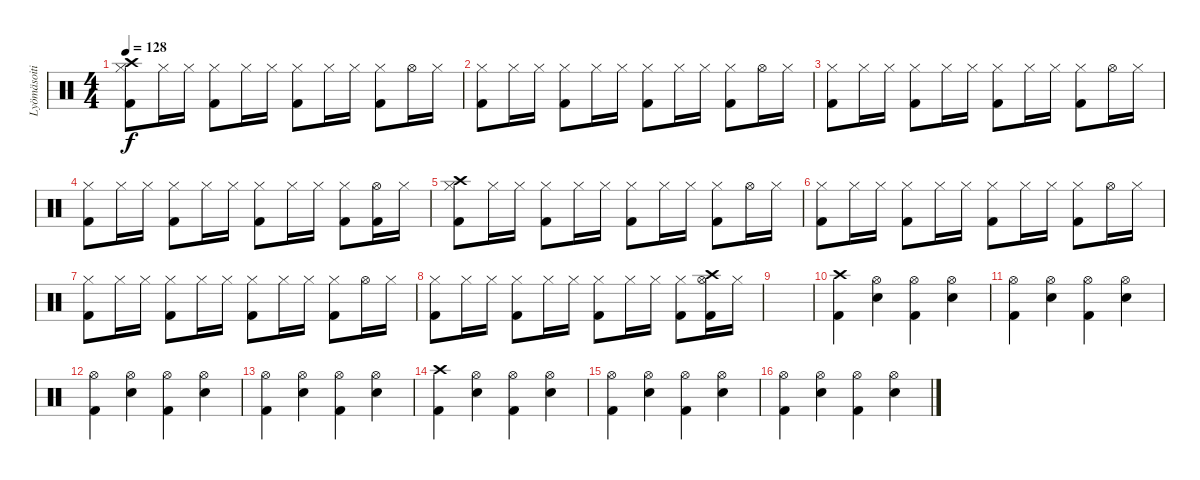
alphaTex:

\track ("Lyömäsoitin" "Lyömäsoiti") {instrument percussion}
\staff {score}
\articulation defaults
\ts (4 4)
\tempo 128
\clef neutral
\ks c
("Crash high (hit)" "Hi-Hat (closed)" "Kick (hit) 2").8{dy f} "Hi-Hat (closed)".16 "Hi-Hat (closed)".16 ("Hi-Hat (closed)" "Kick (hit) 2").8 "Hi-Hat (closed)".16 "Hi-Hat (closed)".16 ("Hi-Hat (closed)" "Kick (hit) 2").8 "Hi-Hat (closed)".16 "Hi-Hat (closed)".16 ("Hi-Hat (closed)" "Kick (hit) 2").8 "Hi-Hat (open)".16 "Hi-Hat (closed)".16 |
("Hi-Hat (closed)" "Kick (hit) 2").8 "Hi-Hat (closed)".16 "Hi-Hat (closed)".16 ("Hi-Hat (closed)" "Kick (hit) 2").8 "Hi-Hat (closed)".16 "Hi-Hat (closed)".16 ("Hi-Hat (closed)" "Kick (hit) 2").8 "Hi-Hat (closed)".16 "Hi-Hat (closed)".16 ("Hi-Hat (closed)" "Kick (hit) 2").8 "Hi-Hat (open)".16 "Hi-Hat (closed)".16 |
("Hi-Hat (closed)" "Kick (hit) 2").8 "Hi-Hat (closed)".16 "Hi-Hat (closed)".16 ("Hi-Hat (closed)" "Kick (hit) 2").8 "Hi-Hat (closed)".16 "Hi-Hat (closed)".16 ("Hi-Hat (closed)" "Kick (hit) 2").8 "Hi-Hat (closed)".16 "Hi-Hat (closed)".16 ("Hi-Hat (closed)" "Kick (hit) 2").8 "Hi-Hat (open)".16 "Hi-Hat (closed)".16 |
("Hi-Hat (closed)" "Kick (hit) 2").8 "Hi-Hat (closed)".16 "Hi-Hat (closed)".16 ("Hi-Hat (closed)" "Kick (hit) 2").8 "Hi-Hat (closed)".16 "Hi-Hat (closed)".16 ("Hi-Hat (closed)" "Kick (hit) 2").8 "Hi-Hat (closed)".16 "Hi-Hat (closed)".16 ("Hi-Hat (closed)" "Kick (hit) 2").8 ("Hi-Hat (open)" "Kick (hit) 2").16 "Hi-Hat (closed)".16 |
("Crash high (hit)" "Hi-Hat (closed)" "Kick (hit) 2").8 "Hi-Hat (closed)".16 "Hi-Hat (closed)".16 ("Hi-Hat (closed)" "Kick (hit) 2").8 "Hi-Hat (closed)".16 "Hi-Hat (closed)".16 ("Hi-Hat (closed)" "Kick (hit) 2").8 "Hi-Hat (closed)".16 "Hi-Hat (closed)".16 ("Hi-Hat (closed)" "Kick (hit) 2").8 "Hi-Hat (open)".16 "Hi-Hat (closed)".16 |
("Hi-Hat (closed)" "Kick (hit) 2").8 "Hi-Hat (closed)".16 "Hi-Hat (closed)".16 ("Hi-Hat (closed)" "Kick (hit) 2").8 "Hi-Hat (closed)".16 "Hi-Hat (closed)".16 ("Hi-Hat (closed)" "Kick (hit) 2").8 "Hi-Hat (closed)".16 "Hi-Hat (closed)".16 ("Hi-Hat (closed)" "Kick (hit) 2").8 "Hi-Hat (open)".16 "Hi-Hat (closed)".16 |
("Hi-Hat (closed)" "Kick (hit) 2").8 "Hi-Hat (closed)".16 "Hi-Hat (closed)".16 ("Hi-Hat (closed)" "Kick (hit) 2").8 "Hi-Hat (closed)".16 "Hi-Hat (closed)".16 ("Hi-Hat (closed)" "Kick (hit) 2").8 "Hi-Hat (closed)".16 "Hi-Hat (closed)".16 ("Hi-Hat (closed)" "Kick (hit) 2").8 "Hi-Hat (open)".16 "Hi-Hat (closed)".16 |
("Hi-Hat (closed)" "Kick (hit) 2").8 "Hi-Hat (closed)".16 "Hi-Hat (closed)".16 ("Hi-Hat (closed)" "Kick (hit) 2").8 "Hi-Hat (closed)".16 "Hi-Hat (closed)".16 ("Hi-Hat (closed)" "Kick (hit) 2").8 "Hi-Hat (closed)".16 "Hi-Hat (closed)".16 ("Hi-Hat (closed)" "Kick (hit) 2").8 ("Crash high (hit)" "Hi-Hat (open)" "Kick (hit) 2").16 "Hi-Hat (closed)".16 |
|
("Crash high (hit)" "Kick (hit) 2").4 ("Hi-Hat (open)" "Electric Snare (hit)").4 ("Hi-Hat (open)" "Kick (hit) 2").4 ("Hi-Hat (open)" "Electric Snare (hit)").4 |
("Hi-Hat (open)" "Kick (hit) 2").4 ("Hi-Hat (open)" "Electric Snare (hit)").4 ("Hi-Hat (open)" "Kick (hit) 2").4 ("Hi-Hat (open)" "Electric Snare (hit)").4 |
("Hi-Hat (open)" "Kick (hit) 2").4 ("Hi-Hat (open)" "Electric Snare (hit)").4 ("Hi-Hat (open)" "Kick (hit) 2").4 ("Hi-Hat (open)" "Electric Snare (hit)").4 |
("Hi-Hat (open)" "Kick (hit) 2").4 ("Hi-Hat (open)" "Electric Snare (hit)").4 ("Hi-Hat (open)" "Kick (hit) 2").4 ("Hi-Hat (open)" "Electric Snare (hit)").4 |
("Crash high (hit)" "Kick (hit) 2").4 ("Hi-Hat (open)" "Electric Snare (hit)").4 ("Hi-Hat (open)" "Kick (hit) 2").4 ("Hi-Hat (open)" "Electric Snare (hit)").4 |
("Hi-Hat (open)" "Kick (hit) 2").4 ("Hi-Hat (open)" "Electric Snare (hit)").4 ("Hi-Hat (open)" "Kick (hit) 2").4 ("Hi-Hat (open)" "Electric Snare (hit)").4 |
("Hi-Hat (open)" "Kick (hit) 2").4 ("Hi-Hat (open)" "Electric Snare (hit)").4 ("Hi-Hat (open)" "Kick (hit) 2").4 ("Hi-Hat (open)" "Electric Snare (hit)").4
